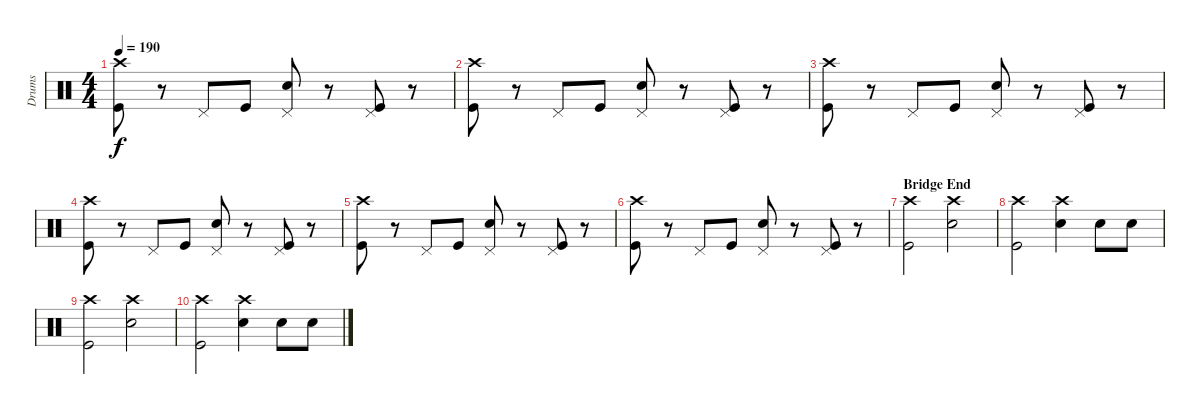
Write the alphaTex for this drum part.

\track ("Drums" "Drums") {instrument percussion}
\staff {score}
\articulation defaults
\ts (4 4)
\tempo 190
\clef neutral
\ks c
("Crash high (hit)" "Kick (hit)").8{dy f} r.8 "Pedal Hi-Hat (hit)".8 "Kick (hit)".8 ("Pedal Hi-Hat (hit)" "Snare (hit) 2").8 r.8 ("Pedal Hi-Hat (hit)" "Kick (hit)").8 r.8 |
("Crash high (hit)" "Kick (hit)").8 r.8 "Pedal Hi-Hat (hit)".8 "Kick (hit)".8 ("Pedal Hi-Hat (hit)" "Snare (hit) 2").8 r.8 ("Pedal Hi-Hat (hit)" "Kick (hit)").8 r.8 |
("Crash high (hit)" "Kick (hit)").8 r.8 "Pedal Hi-Hat (hit)".8 "Kick (hit)".8 ("Pedal Hi-Hat (hit)" "Snare (hit) 2").8 r.8 ("Pedal Hi-Hat (hit)" "Kick (hit)").8 r.8 |
("Crash high (hit)" "Kick (hit)").8 r.8 "Pedal Hi-Hat (hit)".8 "Kick (hit)".8 ("Pedal Hi-Hat (hit)" "Snare (hit) 2").8 r.8 ("Pedal Hi-Hat (hit)" "Kick (hit)").8 r.8 |
("Crash high (hit)" "Kick (hit)").8 r.8 "Pedal Hi-Hat (hit)".8 "Kick (hit)".8 ("Pedal Hi-Hat (hit)" "Snare (hit) 2").8 r.8 ("Pedal Hi-Hat (hit)" "Kick (hit)").8 r.8 |
("Crash high (hit)" "Kick (hit)").8 r.8 "Pedal Hi-Hat (hit)".8 "Kick (hit)".8 ("Pedal Hi-Hat (hit)" "Snare (hit) 2").8 r.8 ("Pedal Hi-Hat (hit)" "Kick (hit)").8 r.8 |
\section ("" "Bridge End")
("Crash high (hit)" "Kick (hit)").2 ("Crash high (hit)" "Snare (hit) 2").2 |
("Crash high (hit)" "Kick (hit)").2 ("Crash high (hit)" "Snare (hit) 2").4 "Snare (hit) 2".8 "Snare (hit) 2".8 |
("Crash high (hit)" "Kick (hit)").2 ("Crash high (hit)" "Snare (hit) 2").2 |
("Crash high (hit)" "Kick (hit)").2 ("Crash high (hit)" "Snare (hit) 2").4 "Snare (hit) 2".8 "Snare (hit) 2".8
